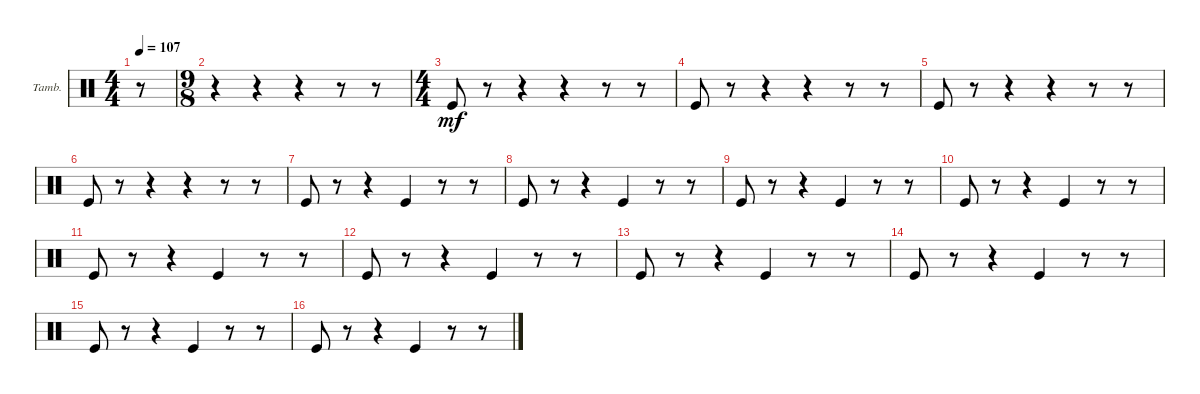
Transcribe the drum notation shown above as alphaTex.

\defaultSystemsLayout 4
\bracketExtendMode groupsimilarinstruments
\firstSystemTrackNameOrientation horizontal
\otherSystemsTrackNameOrientation horizontal
\track ("Tambourine" "Tamb.") {instrument percussion}
\staff {score}
\articulation defaults
\ts (4 4)
\tempo 107
\clef neutral
\scale
0.474178
\ks c
r.8{dy mf} |
\ts (9 8)
\scale
0.262911 r.4 r.4 r.4 r.8 r.8 |
\ts (4 4)
\scale
0.262911 "Kick (hit)".8 r.8 r.4 r.4 r.8 r.8 |
\scale
0.333333 "Kick (hit)".8 r.8 r.4 r.4 r.8 r.8 |
\scale
0.333333 "Kick (hit)".8 r.8 r.4 r.4 r.8 r.8 |
\scale
0.333333 "Kick (hit)".8 r.8 r.4 r.4 r.8 r.8 |
\scale
0.333333 "Kick (hit)".8 r.8 r.4 "Kick (hit)".4 r.8 r.8 |
\scale
0.333333 "Kick (hit)".8 r.8 r.4 "Kick (hit)".4 r.8 r.8 |
\scale
0.333333 "Kick (hit)".8 r.8 r.4 "Kick (hit)".4 r.8 r.8 |
\scale
0.333333 "Kick (hit)".8 r.8 r.4 "Kick (hit)".4 r.8 r.8 |
\scale
0.333333 "Kick (hit)".8 r.8 r.4 "Kick (hit)".4 r.8 r.8 |
\scale
0.333333 "Kick (hit)".8 r.8 r.4 "Kick (hit)".4 r.8 r.8 |
\scale
0.333333 "Kick (hit)".8 r.8 r.4 "Kick (hit)".4 r.8 r.8 |
\scale
0.333333 "Kick (hit)".8 r.8 r.4 "Kick (hit)".4 r.8 r.8 |
\scale
0.333333 "Kick (hit)".8 r.8 r.4 "Kick (hit)".4 r.8 r.8 |
\scale
0.333333 "Kick (hit)".8 r.8 r.4 "Kick (hit)".4 r.8 r.8
